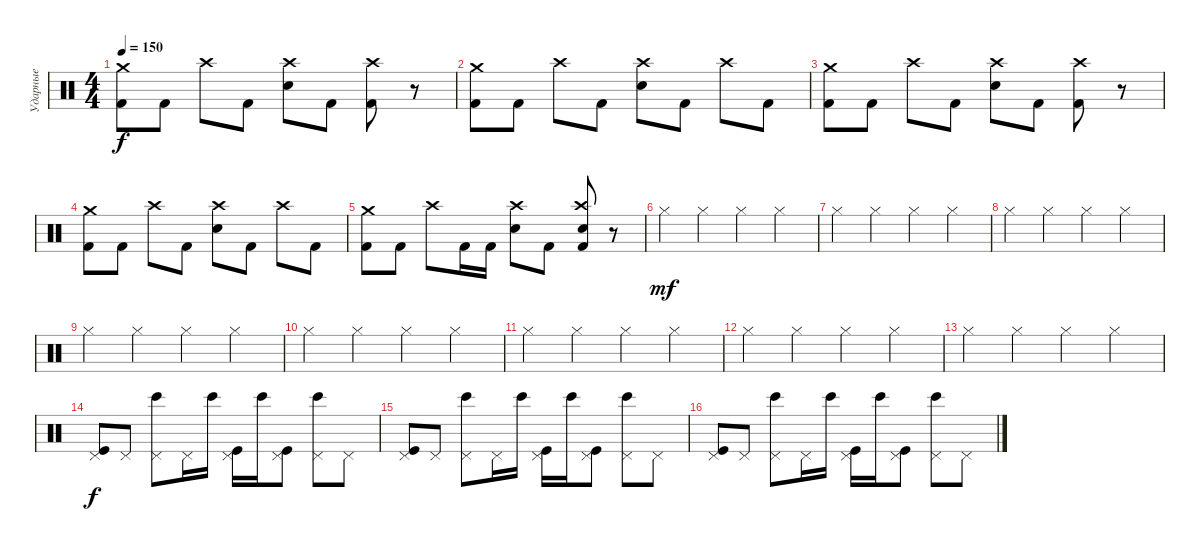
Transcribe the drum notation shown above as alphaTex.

\track ("Ударные" "Ударные") {instrument percussion}
\staff {score}
\articulation defaults
\ts (4 4)
\tempo 150
\clef neutral
\ks c
("Kick (hit) 2" "Crash medium (hit)").8{dy f} "Kick (hit) 2".8 "Crash high (hit)".8 "Kick (hit) 2".8 ("Electric Snare (hit)" "Crash high (hit)").8 "Kick (hit) 2".8 ("Kick (hit) 2" "Crash high (hit)").8 r.8 |
("Kick (hit) 2" "Crash medium (hit)").8 "Kick (hit) 2".8 "Crash high (hit)".8 "Kick (hit) 2".8 ("Electric Snare (hit)" "Crash high (hit)").8 "Kick (hit) 2".8 "Crash high (hit)".8 "Kick (hit) 2".8 |
("Kick (hit) 2" "Crash medium (hit)").8 "Kick (hit) 2".8 "Crash high (hit)".8 "Kick (hit) 2".8 ("Electric Snare (hit)" "Crash high (hit)").8 "Kick (hit) 2".8 ("Kick (hit) 2" "Crash high (hit)").8 r.8 |
("Kick (hit) 2" "Crash medium (hit)").8 "Kick (hit) 2".8 "Crash high (hit)".8 "Kick (hit) 2".8 ("Electric Snare (hit)" "Crash high (hit)").8 "Kick (hit) 2".8 "Crash high (hit)".8 "Kick (hit) 2".8 |
("Kick (hit) 2" "Crash medium (hit)").8 "Kick (hit) 2".8 "Crash high (hit)".8 "Kick (hit) 2".16 "Kick (hit) 2".16 ("Electric Snare (hit)" "Crash high (hit)").8 "Kick (hit) 2".8 ("Kick (hit) 2" "Electric Snare (hit)" "Crash high (hit)").8 r.8 |
"Hi-Hat (closed)".4{dy mf} "Hi-Hat (closed)".4 "Hi-Hat (closed)".4 "Hi-Hat (closed)".4 |
"Hi-Hat (closed)".4 "Hi-Hat (closed)".4 "Hi-Hat (closed)".4 "Hi-Hat (closed)".4 |
"Hi-Hat (closed)".4 "Hi-Hat (closed)".4 "Hi-Hat (closed)".4 "Hi-Hat (closed)".4 |
"Hi-Hat (closed)".4 "Hi-Hat (closed)".4 "Hi-Hat (closed)".4 "Hi-Hat (closed)".4 |
"Hi-Hat (closed)".4 "Hi-Hat (closed)".4 "Hi-Hat (closed)".4 "Hi-Hat (closed)".4 |
"Hi-Hat (closed)".4 "Hi-Hat (closed)".4 "Hi-Hat (closed)".4 "Hi-Hat (closed)".4 |
"Hi-Hat (closed)".4 "Hi-Hat (closed)".4 "Hi-Hat (closed)".4 "Hi-Hat (closed)".4 |
"Hi-Hat (closed)".4 "Hi-Hat (closed)".4 "Hi-Hat (closed)".4 "Hi-Hat (closed)".4 |
("Kick (hit)" "Pedal Hi-Hat (hit)").8{dy f volume 10} "Pedal Hi-Hat (hit)".8 ("Bongo High (hit)" "Pedal Hi-Hat (hit)").8 "Pedal Hi-Hat (hit)".16 "Bongo High (hit)".16 ("Kick (hit)" "Pedal Hi-Hat (hit)").16 "Bongo High (hit)".16 ("Kick (hit)" "Pedal Hi-Hat (hit)").8 ("Bongo High (hit)" "Pedal Hi-Hat (hit)").8 "Pedal Hi-Hat (hit)".8 |
("Kick (hit)" "Pedal Hi-Hat (hit)").8 "Pedal Hi-Hat (hit)".8 ("Bongo High (hit)" "Pedal Hi-Hat (hit)").8 "Pedal Hi-Hat (hit)".16 "Bongo High (hit)".16 ("Kick (hit)" "Pedal Hi-Hat (hit)").16 "Bongo High (hit)".16 ("Kick (hit)" "Pedal Hi-Hat (hit)").8 ("Bongo High (hit)" "Pedal Hi-Hat (hit)").8 "Pedal Hi-Hat (hit)".8 |
("Kick (hit)" "Pedal Hi-Hat (hit)").8 "Pedal Hi-Hat (hit)".8 ("Bongo High (hit)" "Pedal Hi-Hat (hit)").8 "Pedal Hi-Hat (hit)".16 "Bongo High (hit)".16 ("Kick (hit)" "Pedal Hi-Hat (hit)").16 "Bongo High (hit)".16 ("Kick (hit)" "Pedal Hi-Hat (hit)").8 ("Bongo High (hit)" "Pedal Hi-Hat (hit)").8 "Pedal Hi-Hat (hit)".8
